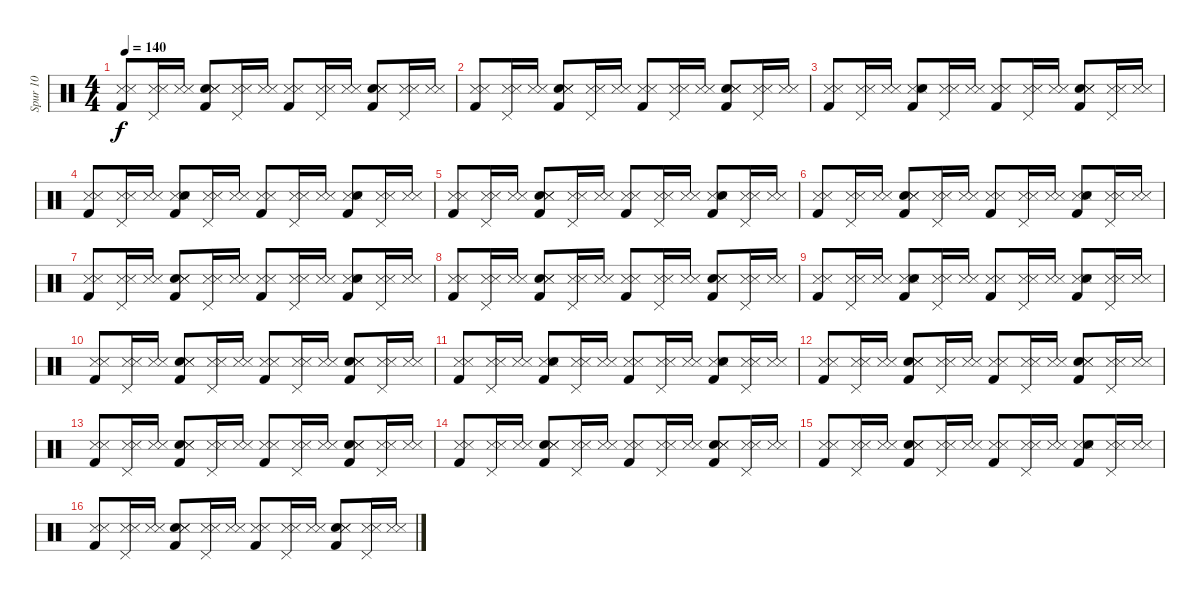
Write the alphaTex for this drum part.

\track ("Spur 10" "Spur 10") {instrument percussion}
\staff {score}
\articulation defaults
\ts (4 4)
\tempo 140
\clef neutral
\ks c
("Kick (hit) 2" "Snare (side stick) 3" "Metronome (hit)").8{dy f} ("Snare (side stick) 3" "Pedal Hi-Hat (hit)" "Metronome (hit)").16 ("Snare (side stick) 3" "Metronome (hit)").16 ("Kick (hit) 2" "Snare (hit) 2" "Snare (side stick) 3" "Metronome (hit)").8 ("Pedal Hi-Hat (hit)" "Snare (side stick) 3" "Metronome (hit)").16 ("Snare (side stick) 3" "Metronome (hit)").16 ("Kick (hit) 2" "Snare (side stick) 3" "Metronome (hit)").8 ("Snare (side stick) 3" "Pedal Hi-Hat (hit)" "Metronome (hit)").16 ("Snare (side stick) 3" "Metronome (hit)").16 ("Snare (hit) 2" "Snare (side stick) 3" "Kick (hit) 2" "Metronome (hit)").8 ("Pedal Hi-Hat (hit)" "Snare (side stick) 3" "Metronome (hit)").16 ("Snare (side stick) 3" "Metronome (hit)").16 |
("Kick (hit) 2" "Snare (side stick) 3" "Metronome (hit)").8 ("Snare (side stick) 3" "Pedal Hi-Hat (hit)" "Metronome (hit)").16 ("Snare (side stick) 3" "Metronome (hit)").16 ("Kick (hit) 2" "Snare (hit) 2" "Snare (side stick) 3" "Metronome (hit)").8 ("Pedal Hi-Hat (hit)" "Snare (side stick) 3" "Metronome (hit)").16 ("Snare (side stick) 3" "Metronome (hit)").16 ("Kick (hit) 2" "Snare (side stick) 3" "Metronome (hit)").8 ("Pedal Hi-Hat (hit)" "Snare (side stick) 3" "Metronome (hit)").16 ("Snare (side stick) 3" "Metronome (hit)").16 ("Kick (hit) 2" "Snare (hit) 2" "Snare (side stick) 3" "Metronome (hit)").8 ("Pedal Hi-Hat (hit)" "Snare (side stick) 3" "Metronome (hit)").16 ("Snare (side stick) 3" "Metronome (hit)").16 |
("Snare (side stick) 3" "Kick (hit) 2" "Metronome (hit)").8 ("Pedal Hi-Hat (hit)" "Snare (side stick) 3" "Metronome (hit)").16 ("Snare (side stick) 3" "Metronome (hit)").16 ("Snare (side stick) 3" "Kick (hit) 2" "Snare (hit) 2" "Metronome (hit)").8 ("Snare (side stick) 3" "Pedal Hi-Hat (hit)" "Metronome (hit)").16 ("Snare (side stick) 3" "Metronome (hit)").16 ("Kick (hit) 2" "Snare (side stick) 3" "Metronome (hit)").8 ("Pedal Hi-Hat (hit)" "Snare (side stick) 3" "Metronome (hit)").16 ("Snare (side stick) 3" "Metronome (hit)").16 ("Kick (hit) 2" "Snare (hit) 2" "Snare (side stick) 3" "Metronome (hit)").8 ("Pedal Hi-Hat (hit)" "Snare (side stick) 3" "Metronome (hit)").16 ("Snare (side stick) 3" "Metronome (hit)").16 |
("Kick (hit) 2" "Snare (side stick) 3" "Metronome (hit)").8 ("Pedal Hi-Hat (hit)" "Snare (side stick) 3" "Metronome (hit)").16 ("Snare (side stick) 3" "Metronome (hit)").16 ("Snare (side stick) 3" "Kick (hit) 2" "Snare (hit) 2" "Metronome (hit)").8 ("Pedal Hi-Hat (hit)" "Snare (side stick) 3" "Metronome (hit)").16 ("Snare (side stick) 3" "Metronome (hit)").16 ("Kick (hit) 2" "Snare (side stick) 3" "Metronome (hit)").8 ("Pedal Hi-Hat (hit)" "Snare (side stick) 3" "Metronome (hit)").16 ("Snare (side stick) 3" "Metronome (hit)").16 ("Kick (hit) 2" "Snare (side stick) 3" "Snare (hit) 2" "Metronome (hit)").8 ("Snare (side stick) 3" "Pedal Hi-Hat (hit)" "Metronome (hit)").16 ("Snare (side stick) 3" "Metronome (hit)").16 |
("Kick (hit) 2" "Snare (side stick) 3" "Metronome (hit)").8 ("Pedal Hi-Hat (hit)" "Snare (side stick) 3" "Metronome (hit)").16 ("Snare (side stick) 3" "Metronome (hit)").16 ("Snare (hit) 2" "Snare (side stick) 3" "Kick (hit) 2" "Metronome (hit)").8 ("Snare (side stick) 3" "Pedal Hi-Hat (hit)" "Metronome (hit)").16 ("Snare (side stick) 3" "Metronome (hit)").16 ("Snare (side stick) 3" "Kick (hit) 2" "Metronome (hit)").8 ("Pedal Hi-Hat (hit)" "Snare (side stick) 3" "Metronome (hit)").16 ("Snare (side stick) 3" "Metronome (hit)").16 ("Kick (hit) 2" "Snare (side stick) 3" "Snare (hit) 2" "Metronome (hit)").8 ("Snare (side stick) 3" "Pedal Hi-Hat (hit)" "Metronome (hit)").16 ("Snare (side stick) 3" "Metronome (hit)").16 |
("Kick (hit) 2" "Snare (side stick) 3" "Metronome (hit)").8 ("Pedal Hi-Hat (hit)" "Snare (side stick) 3" "Metronome (hit)").16 ("Snare (side stick) 3" "Metronome (hit)").16 ("Snare (hit) 2" "Kick (hit) 2" "Snare (side stick) 3" "Metronome (hit)").8 ("Pedal Hi-Hat (hit)" "Snare (side stick) 3" "Metronome (hit)").16 ("Snare (side stick) 3" "Metronome (hit)").16 ("Kick (hit) 2" "Snare (side stick) 3" "Metronome (hit)").8 ("Snare (side stick) 3" "Pedal Hi-Hat (hit)" "Metronome (hit)").16 ("Snare (side stick) 3" "Metronome (hit)").16 ("Snare (side stick) 3" "Kick (hit) 2" "Snare (hit) 2" "Metronome (hit)").8 ("Pedal Hi-Hat (hit)" "Snare (side stick) 3" "Metronome (hit)").16 ("Snare (side stick) 3" "Metronome (hit)").16 |
("Kick (hit) 2" "Snare (side stick) 3" "Metronome (hit)").8 ("Pedal Hi-Hat (hit)" "Snare (side stick) 3" "Metronome (hit)").16 ("Snare (side stick) 3" "Metronome (hit)").16 ("Snare (hit) 2" "Kick (hit) 2" "Snare (side stick) 3" "Metronome (hit)").8 ("Pedal Hi-Hat (hit)" "Snare (side stick) 3" "Metronome (hit)").16 ("Snare (side stick) 3" "Metronome (hit)").16 ("Kick (hit) 2" "Snare (side stick) 3" "Metronome (hit)").8 ("Snare (side stick) 3" "Pedal Hi-Hat (hit)" "Metronome (hit)").16 ("Snare (side stick) 3" "Metronome (hit)").16 ("Kick (hit) 2" "Snare (side stick) 3" "Snare (hit) 2" "Metronome (hit)").8 ("Pedal Hi-Hat (hit)" "Snare (side stick) 3" "Metronome (hit)").16 ("Snare (side stick) 3" "Metronome (hit)").16 |
("Kick (hit) 2" "Snare (side stick) 3" "Metronome (hit)").8 ("Pedal Hi-Hat (hit)" "Snare (side stick) 3" "Metronome (hit)").16 ("Snare (side stick) 3" "Metronome (hit)").16 ("Snare (hit) 2" "Kick (hit) 2" "Snare (side stick) 3" "Metronome (hit)").8 ("Pedal Hi-Hat (hit)" "Snare (side stick) 3" "Metronome (hit)").16 ("Snare (side stick) 3" "Metronome (hit)").16 ("Snare (side stick) 3" "Kick (hit) 2" "Metronome (hit)").8 ("Snare (side stick) 3" "Pedal Hi-Hat (hit)" "Metronome (hit)").16 ("Snare (side stick) 3" "Metronome (hit)").16 ("Kick (hit) 2" "Snare (hit) 2" "Snare (side stick) 3" "Metronome (hit)").8 ("Pedal Hi-Hat (hit)" "Snare (side stick) 3" "Metronome (hit)").16 ("Snare (side stick) 3" "Metronome (hit)").16 |
("Kick (hit) 2" "Snare (side stick) 3" "Metronome (hit)").8 ("Pedal Hi-Hat (hit)" "Snare (side stick) 3" "Metronome (hit)").16 ("Snare (side stick) 3" "Metronome (hit)").16 ("Snare (side stick) 3" "Snare (hit) 2" "Kick (hit) 2" "Metronome (hit)").8 ("Pedal Hi-Hat (hit)" "Snare (side stick) 3" "Metronome (hit)").16 ("Snare (side stick) 3" "Metronome (hit)").16 ("Snare (side stick) 3" "Kick (hit) 2" "Metronome (hit)").8 ("Pedal Hi-Hat (hit)" "Snare (side stick) 3" "Metronome (hit)").16 ("Snare (side stick) 3" "Metronome (hit)").16 ("Kick (hit) 2" "Snare (side stick) 3" "Snare (hit) 2" "Metronome (hit)").8 ("Pedal Hi-Hat (hit)" "Snare (side stick) 3" "Metronome (hit)").16 ("Snare (side stick) 3" "Metronome (hit)").16 |
("Kick (hit) 2" "Snare (side stick) 3" "Metronome (hit)").8 ("Snare (side stick) 3" "Pedal Hi-Hat (hit)" "Metronome (hit)").16 ("Snare (side stick) 3" "Metronome (hit)").16 ("Snare (hit) 2" "Kick (hit) 2" "Snare (side stick) 3" "Metronome (hit)").8 ("Pedal Hi-Hat (hit)" "Snare (side stick) 3" "Metronome (hit)").16 ("Snare (side stick) 3" "Metronome (hit)").16 ("Snare (side stick) 3" "Kick (hit) 2" "Metronome (hit)").8 ("Pedal Hi-Hat (hit)" "Snare (side stick) 3" "Metronome (hit)").16 ("Snare (side stick) 3" "Metronome (hit)").16 ("Kick (hit) 2" "Snare (hit) 2" "Snare (side stick) 3" "Metronome (hit)").8 ("Pedal Hi-Hat (hit)" "Snare (side stick) 3" "Metronome (hit)").16 ("Snare (side stick) 3" "Metronome (hit)").16 |
("Kick (hit) 2" "Snare (side stick) 3" "Metronome (hit)").8 ("Pedal Hi-Hat (hit)" "Snare (side stick) 3" "Metronome (hit)").16 ("Snare (side stick) 3" "Metronome (hit)").16 ("Kick (hit) 2" "Snare (side stick) 3" "Snare (hit) 2" "Metronome (hit)").8 ("Pedal Hi-Hat (hit)" "Snare (side stick) 3" "Metronome (hit)").16 ("Snare (side stick) 3" "Metronome (hit)").16 ("Kick (hit) 2" "Snare (side stick) 3" "Metronome (hit)").8 ("Pedal Hi-Hat (hit)" "Snare (side stick) 3" "Metronome (hit)").16 ("Snare (side stick) 3" "Metronome (hit)").16 ("Snare (side stick) 3" "Snare (hit) 2" "Kick (hit) 2" "Metronome (hit)").8 ("Snare (side stick) 3" "Pedal Hi-Hat (hit)" "Metronome (hit)").16 ("Snare (side stick) 3" "Metronome (hit)").16 |
("Snare (side stick) 3" "Kick (hit) 2" "Metronome (hit)").8 ("Snare (side stick) 3" "Pedal Hi-Hat (hit)" "Metronome (hit)").16 ("Snare (side stick) 3" "Metronome (hit)").16 ("Snare (hit) 2" "Snare (side stick) 3" "Kick (hit) 2" "Metronome (hit)").8 ("Pedal Hi-Hat (hit)" "Snare (side stick) 3" "Metronome (hit)").16 ("Snare (side stick) 3" "Metronome (hit)").16 ("Kick (hit) 2" "Snare (side stick) 3" "Metronome (hit)").8 ("Snare (side stick) 3" "Pedal Hi-Hat (hit)" "Metronome (hit)").16 ("Snare (side stick) 3" "Metronome (hit)").16 ("Kick (hit) 2" "Snare (hit) 2" "Snare (side stick) 3" "Metronome (hit)").8 ("Pedal Hi-Hat (hit)" "Snare (side stick) 3" "Metronome (hit)").16 ("Snare (side stick) 3" "Metronome (hit)").16 |
("Kick (hit) 2" "Snare (side stick) 3" "Metronome (hit)").8 ("Pedal Hi-Hat (hit)" "Snare (side stick) 3" "Metronome (hit)").16 ("Snare (side stick) 3" "Metronome (hit)").16 ("Kick (hit) 2" "Snare (hit) 2" "Snare (side stick) 3" "Metronome (hit)").8 ("Pedal Hi-Hat (hit)" "Snare (side stick) 3" "Metronome (hit)").16 ("Snare (side stick) 3" "Metronome (hit)").16 ("Snare (side stick) 3" "Kick (hit) 2" "Metronome (hit)").8 ("Pedal Hi-Hat (hit)" "Snare (side stick) 3" "Metronome (hit)").16 ("Snare (side stick) 3" "Metronome (hit)").16 ("Kick (hit) 2" "Snare (hit) 2" "Snare (side stick) 3" "Metronome (hit)").8 ("Pedal Hi-Hat (hit)" "Snare (side stick) 3" "Metronome (hit)").16 ("Snare (side stick) 3" "Metronome (hit)").16 |
("Kick (hit) 2" "Snare (side stick) 3" "Metronome (hit)").8 ("Pedal Hi-Hat (hit)" "Snare (side stick) 3" "Metronome (hit)").16 ("Snare (side stick) 3" "Metronome (hit)").16 ("Kick (hit) 2" "Snare (hit) 2" "Snare (side stick) 3" "Metronome (hit)").8 ("Pedal Hi-Hat (hit)" "Snare (side stick) 3" "Metronome (hit)").16 ("Snare (side stick) 3" "Metronome (hit)").16 ("Snare (side stick) 3" "Kick (hit) 2" "Metronome (hit)").8 ("Pedal Hi-Hat (hit)" "Snare (side stick) 3" "Metronome (hit)").16 ("Snare (side stick) 3" "Metronome (hit)").16 ("Kick (hit) 2" "Snare (hit) 2" "Snare (side stick) 3" "Metronome (hit)").8 ("Pedal Hi-Hat (hit)" "Snare (side stick) 3" "Metronome (hit)").16 ("Snare (side stick) 3" "Metronome (hit)").16 |
("Kick (hit) 2" "Snare (side stick) 3" "Metronome (hit)").8 ("Pedal Hi-Hat (hit)" "Snare (side stick) 3" "Metronome (hit)").16 ("Snare (side stick) 3" "Metronome (hit)").16 ("Snare (hit) 2" "Kick (hit) 2" "Snare (side stick) 3" "Metronome (hit)").8 ("Pedal Hi-Hat (hit)" "Snare (side stick) 3" "Metronome (hit)").16 ("Snare (side stick) 3" "Metronome (hit)").16 ("Snare (side stick) 3" "Kick (hit) 2" "Metronome (hit)").8 ("Snare (side stick) 3" "Pedal Hi-Hat (hit)" "Metronome (hit)").16 ("Snare (side stick) 3" "Metronome (hit)").16 ("Kick (hit) 2" "Snare (side stick) 3" "Snare (hit) 2" "Metronome (hit)").8 ("Pedal Hi-Hat (hit)" "Snare (side stick) 3" "Metronome (hit)").16 ("Snare (side stick) 3" "Metronome (hit)").16 |
("Kick (hit) 2" "Snare (side stick) 3" "Metronome (hit)").8 ("Pedal Hi-Hat (hit)" "Snare (side stick) 3" "Metronome (hit)").16 ("Snare (side stick) 3" "Metronome (hit)").16 ("Snare (hit) 2" "Snare (side stick) 3" "Kick (hit) 2" "Metronome (hit)").8 ("Pedal Hi-Hat (hit)" "Snare (side stick) 3" "Metronome (hit)").16 ("Snare (side stick) 3" "Metronome (hit)").16 ("Snare (side stick) 3" "Kick (hit) 2" "Metronome (hit)").8 ("Pedal Hi-Hat (hit)" "Snare (side stick) 3" "Metronome (hit)").16 ("Snare (side stick) 3" "Metronome (hit)").16 ("Kick (hit) 2" "Snare (hit) 2" "Snare (side stick) 3" "Metronome (hit)").8 ("Pedal Hi-Hat (hit)" "Snare (side stick) 3" "Metronome (hit)").16 ("Snare (side stick) 3" "Metronome (hit)").16
